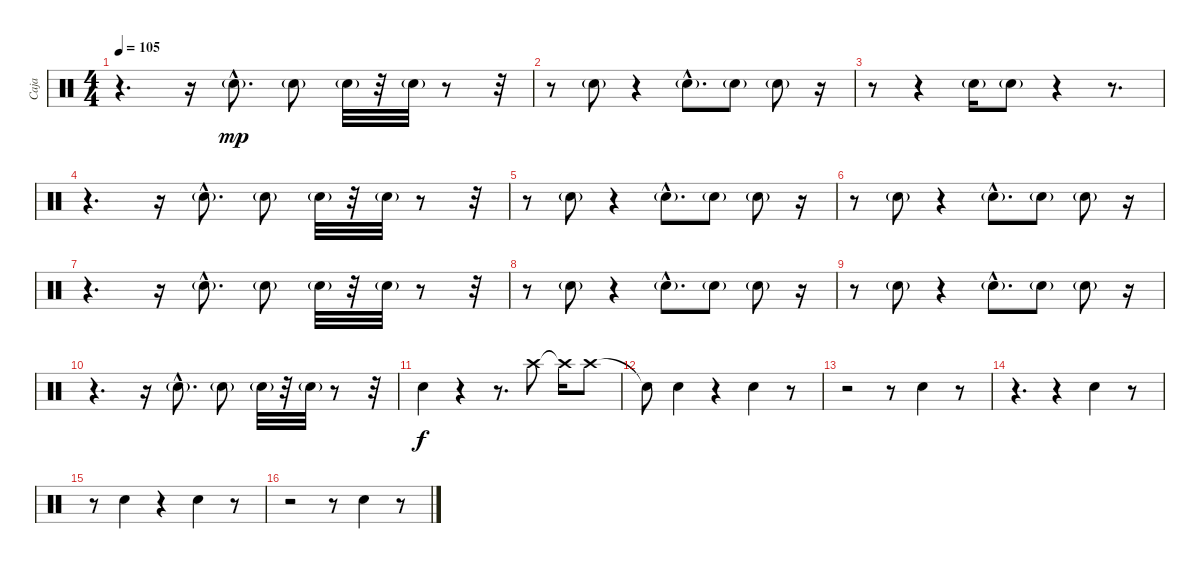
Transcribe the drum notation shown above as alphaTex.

\track ("Caja" "Caja") {instrument percussion}
\staff {score}
\articulation defaults
\ts (4 4)
\tempo 105
\clef neutral
\ks c
r.4{d dy mp} r.16 "Electric Snare (hit)"{g hac}.8{d} "Electric Snare (hit)"{g}.8 "Electric Snare (hit)"{g}.32 r.32 "Electric Snare (hit)"{g}.32 r.8 r.32 |
r.8 "Electric Snare (hit)"{g}.8 r.4 "Electric Snare (hit)"{g hac}.8{d} "Electric Snare (hit)"{g}.8 "Electric Snare (hit)"{g}.8 r.16 |
r.8 r.4 "Electric Snare (hit)"{g}.16 "Electric Snare (hit)"{g}.8 r.4 r.8{d} |
r.4{d} r.16 "Electric Snare (hit)"{g hac}.8{d} "Electric Snare (hit)"{g}.8 "Electric Snare (hit)"{g}.32 r.32 "Electric Snare (hit)"{g}.32 r.8 r.32 |
r.8 "Electric Snare (hit)"{g}.8 r.4 "Electric Snare (hit)"{g hac}.8{d} "Electric Snare (hit)"{g}.8 "Electric Snare (hit)"{g}.8 r.16 |
r.8 "Electric Snare (hit)"{g}.8 r.4 "Electric Snare (hit)"{g hac}.8{d} "Electric Snare (hit)"{g}.8 "Electric Snare (hit)"{g}.8 r.16 |
r.4{d} r.16 "Electric Snare (hit)"{g hac}.8{d} "Electric Snare (hit)"{g}.8 "Electric Snare (hit)"{g}.32 r.32 "Electric Snare (hit)"{g}.32 r.8 r.32 |
r.8 "Electric Snare (hit)"{g}.8 r.4 "Electric Snare (hit)"{g hac}.8{d} "Electric Snare (hit)"{g}.8 "Electric Snare (hit)"{g}.8 r.16 |
r.8 "Electric Snare (hit)"{g}.8 r.4 "Electric Snare (hit)"{g hac}.8{d} "Electric Snare (hit)"{g}.8 "Electric Snare (hit)"{g}.8 r.16 |
r.4{d} r.16 "Electric Snare (hit)"{g hac}.8{d} "Electric Snare (hit)"{g}.8 "Electric Snare (hit)"{g}.32 r.32 "Electric Snare (hit)"{g}.32 r.8 r.32 |
"Electric Snare (hit)".4{dy f} r.4 r.8{d} "Crash high (hit)".8 "Crash high (hit)"{t}.16 "Crash high (hit)".8 |
"Snare (hit)"{t}.8 "Snare (hit) 2".4 r.4 "Snare (hit) 2".4 r.8 |
r.2 r.8 "Snare (hit) 2".4 r.8 |
r.4{d} r.4 "Snare (hit) 2".4 r.8 |
r.8 "Snare (hit) 2".4 r.4 "Snare (hit) 2".4 r.8 |
r.2 r.8 "Snare (hit) 2".4 r.8
